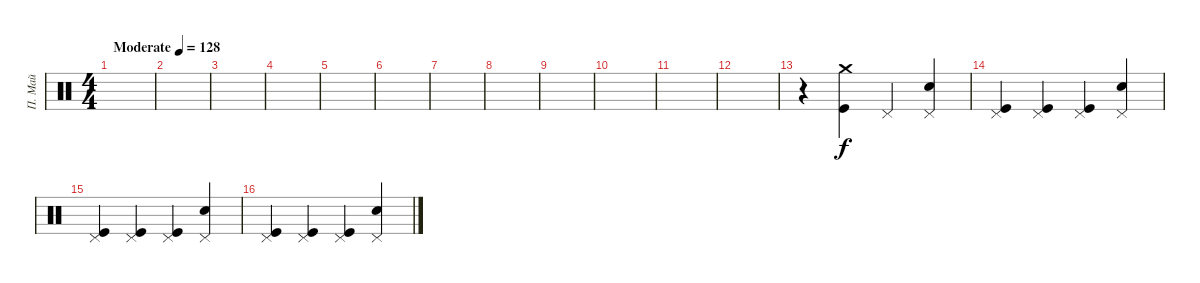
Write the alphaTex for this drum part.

\track ("П. Май" "П. Май") {instrument percussion}
\staff {score}
\articulation defaults
\ts (4 4)
\tempo (128 "Moderate")
\clef neutral
\ks c
|
|
|
|
|
|
|
|
|
|
|
|
r.4 ("Crash medium (hit)" "Kick (hit)").4 "Pedal Hi-Hat (hit)".4 ("Pedal Hi-Hat (hit)" "Snare (hit) 2").4 |
("Pedal Hi-Hat (hit)" "Kick (hit)").4 ("Pedal Hi-Hat (hit)" "Kick (hit)").4 ("Pedal Hi-Hat (hit)" "Kick (hit)").4 ("Pedal Hi-Hat (hit)" "Snare (hit) 2").4 |
("Pedal Hi-Hat (hit)" "Kick (hit)").4 ("Pedal Hi-Hat (hit)" "Kick (hit)").4 ("Pedal Hi-Hat (hit)" "Kick (hit)").4 ("Pedal Hi-Hat (hit)" "Snare (hit) 2").4 |
("Pedal Hi-Hat (hit)" "Kick (hit)").4 ("Pedal Hi-Hat (hit)" "Kick (hit)").4 ("Pedal Hi-Hat (hit)" "Kick (hit)").4 ("Pedal Hi-Hat (hit)" "Snare (hit) 2").4
